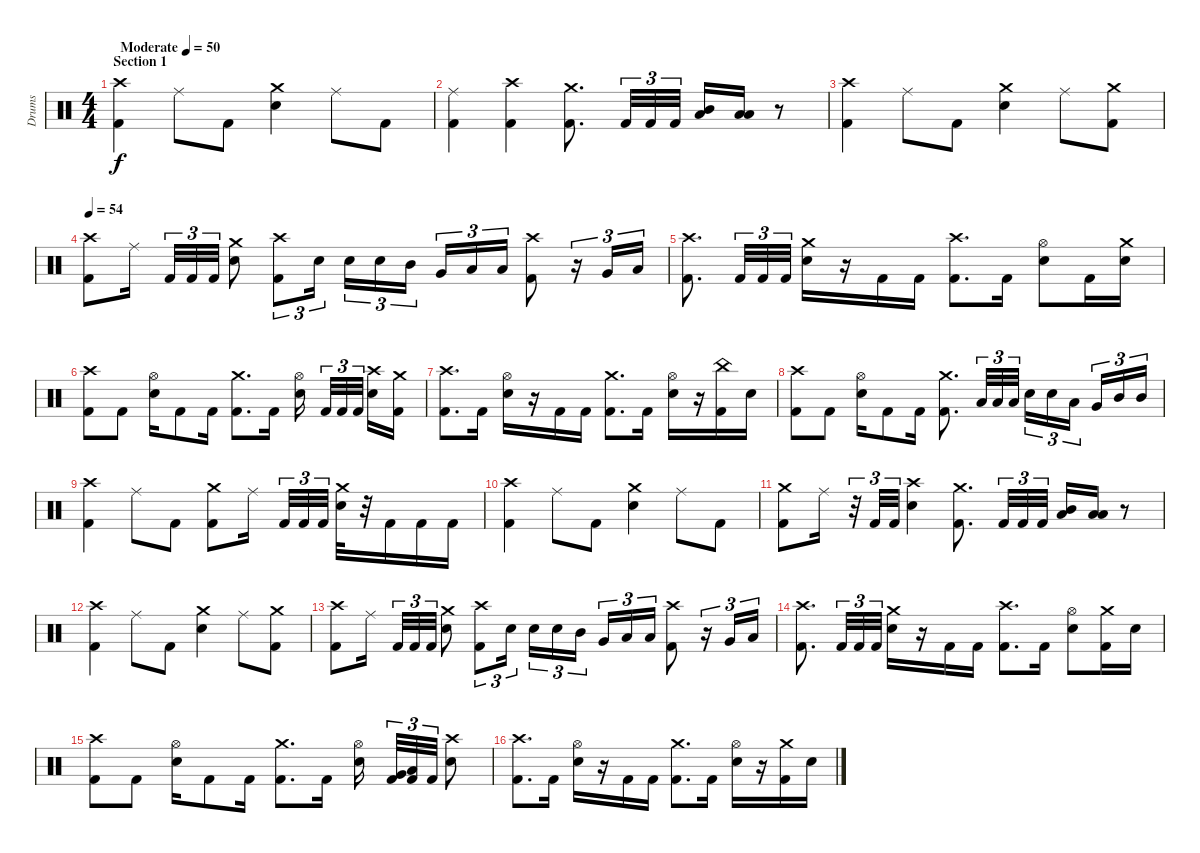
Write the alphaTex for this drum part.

\track ("Drums" "Drums") {instrument percussion}
\staff {score}
\articulation defaults
\ts (4 4)
\section ("" "Section 1")
\tempo (50 "Moderate")
\clef neutral
\ks c
("Crash high (hit)" "Kick (hit) 2").4{dy f} "Ride (middle)".8 "Kick (hit) 2".8 ("Crash medium (hit)" "Electric Snare (hit)").4 "Ride (middle)".8 "Kick (hit) 2".8 |
("Ride (middle)" "Kick (hit) 2").4 ("Crash high (hit)" "Kick (hit) 2").4 ("Crash medium (hit)" "Kick (hit) 2").8{d} "Kick (hit) 2".32{tu (3 2)} "Kick (hit) 2".32{tu (3 2)} "Kick (hit) 2".32{tu (3 2)} ("Mid Tom (hit)" "Low Floor Tom (hit)").16 ("Low Tom (hit)" "Low Floor Tom (hit)").16 r.8 |
("Crash high (hit)" "Kick (hit) 2").4 "Ride (middle)".8 "Kick (hit) 2".8 ("Crash medium (hit)" "Electric Snare (hit)").4 "Ride (middle)".8 ("Crash medium (hit)" "Kick (hit) 2").8 |
\tempo 54
("Crash high (hit)" "Kick (hit) 2").8 "Ride (middle)".16{beam splitsecondary} "Kick (hit) 2".32{tu (3 2)} "Kick (hit) 2".32{tu (3 2)} "Kick (hit) 2".32{tu (3 2)} ("Crash medium (hit)" "Electric Snare (hit)").8 ("Crash high (hit)" "Kick (hit) 2").8{tu (3 2)} "Electric Snare (hit)".16{tu (3 2)} "Electric Snare (hit)".16{tu (3 2)} "Electric Snare (hit)".16{tu (3 2)} "Mid Tom (hit)".16{tu (3 2) beam splitsecondary} "Very Low Tom (hit)".16{tu (3 2)} "Low Tom (hit)".16{tu (3 2)} "Low Tom (hit)".16{tu (3 2)} ("Crash high (hit)" "Kick (hit) 2").8 r.16{tu (3 2)} "Very Low Tom (hit)".16{tu (3 2)} "Low Floor Tom (hit)".16{tu (3 2)} |
("Crash high (hit)" "Kick (hit) 2").8{d} "Kick (hit) 2".32{tu (3 2)} "Kick (hit) 2".32{tu (3 2)} "Kick (hit) 2".32{tu (3 2)} ("Crash medium (hit)" "Electric Snare (hit)").16 r.16 "Kick (hit) 2".16 "Kick (hit) 2".16 ("Crash high (hit)" "Kick (hit) 2").8{d} "Kick (hit) 2".16 ("Hi-Hat (open)" "Electric Snare (hit)").8 "Kick (hit) 2".16 ("Crash medium (hit)" "Electric Snare (hit)").16 |
("Crash high (hit)" "Kick (hit) 2").8 "Kick (hit) 2".8 ("Hi-Hat (open)" "Electric Snare (hit)").16 "Kick (hit) 2".8 "Kick (hit) 2".16 ("Crash medium (hit)" "Kick (hit) 2").8{d} "Kick (hit) 2".16 ("Hi-Hat (open)" "Electric Snare (hit)").16{beam splitsecondary} "Kick (hit) 2".32{tu (3 2)} "Kick (hit) 2".32{tu (3 2)} "Kick (hit) 2".32{tu (3 2) beam splitsecondary} ("Crash high (hit)" "Electric Snare (hit)").16 ("Crash medium (hit)" "Kick (hit) 2").16 |
("Crash high (hit)" "Kick (hit) 2").8{d} "Kick (hit) 2".16 ("Hi-Hat (open)" "Electric Snare (hit)").16 r.16 "Kick (hit) 2".16 "Kick (hit) 2".16 ("Crash medium (hit)" "Kick (hit) 2").8{d} "Kick (hit) 2".16 ("Hi-Hat (open)" "Electric Snare (hit)").16 r.16 ("China (hit)" "Kick (hit) 2").16 "Electric Snare (hit)".16 |
("Crash high (hit)" "Kick (hit) 2").8 "Kick (hit) 2".8 ("Hi-Hat (open)" "Electric Snare (hit)").16 "Kick (hit) 2".8 "Kick (hit) 2".16 ("Crash medium (hit)" "Kick (hit) 2").8{d} "Low Tom (hit)".32{tu (3 2)} "Low Tom (hit)".32{tu (3 2)} "Low Tom (hit)".32{tu (3 2)} "Electric Snare (hit)".16{tu (3 2)} "Electric Snare (hit)".16{tu (3 2)} "Low Tom (hit)".16{tu (3 2) beam splitsecondary} "Very Low Tom (hit)".16{tu (3 2)} "Mid Tom (hit)".16{tu (3 2)} "Mid Tom (hit)".16{tu (3 2)} |
("Crash high (hit)" "Kick (hit) 2").4 "Ride (middle)".8 "Kick (hit) 2".8 ("Crash medium (hit)" "Kick (hit) 2").8 "Ride (middle)".16{beam splitsecondary} "Kick (hit) 2".32{tu (3 2)} "Kick (hit) 2".32{tu (3 2)} "Kick (hit) 2".32{tu (3 2)} ("Crash medium (hit)" "Electric Snare (hit)").32 r.32 "Kick (hit) 2".16 "Kick (hit) 2".16 "Kick (hit) 2".16 |
("Crash high (hit)" "Kick (hit) 2").4 "Ride (middle)".8 "Kick (hit) 2".8 ("Crash medium (hit)" "Electric Snare (hit)").4 "Ride (middle)".8 "Kick (hit) 2".8 |
("Crash medium (hit)" "Kick (hit) 2").8 "Ride (middle)".16 r.32{tu (3 2)} "Kick (hit) 2".32{tu (3 2)} "Kick (hit) 2".32{tu (3 2)} ("Crash high (hit)" "Electric Snare (hit)").4 ("Crash medium (hit)" "Kick (hit) 2").8{d} "Kick (hit) 2".32{tu (3 2)} "Kick (hit) 2".32{tu (3 2)} "Kick (hit) 2".32{tu (3 2)} ("Mid Tom (hit)" "Low Floor Tom (hit)").16 ("Low Tom (hit)" "Low Floor Tom (hit)").16 r.8 |
("Crash high (hit)" "Kick (hit) 2").4 "Ride (middle)".8 "Kick (hit) 2".8 ("Crash medium (hit)" "Electric Snare (hit)").4 "Ride (middle)".8 ("Crash medium (hit)" "Kick (hit) 2").8 |
("Crash high (hit)" "Kick (hit) 2").8 "Ride (middle)".16{beam splitsecondary} "Kick (hit) 2".32{tu (3 2)} "Kick (hit) 2".32{tu (3 2)} "Kick (hit) 2".32{tu (3 2)} ("Crash medium (hit)" "Electric Snare (hit)").8 ("Crash high (hit)" "Kick (hit) 2").8{tu (3 2)} "Electric Snare (hit)".16{tu (3 2)} "Electric Snare (hit)".16{tu (3 2)} "Electric Snare (hit)".16{tu (3 2)} "Mid Tom (hit)".16{tu (3 2) beam splitsecondary} "Very Low Tom (hit)".16{tu (3 2)} "Low Tom (hit)".16{tu (3 2)} "Low Tom (hit)".16{tu (3 2)} ("Crash high (hit)" "Kick (hit) 2").8 r.16{tu (3 2)} "Very Low Tom (hit)".16{tu (3 2)} "Low Floor Tom (hit)".16{tu (3 2)} |
("Crash high (hit)" "Kick (hit) 2").8{d} "Kick (hit) 2".32{tu (3 2)} "Kick (hit) 2".32{tu (3 2)} "Kick (hit) 2".32{tu (3 2)} ("Crash medium (hit)" "Electric Snare (hit)").16 r.16 "Kick (hit) 2".16 "Kick (hit) 2".16 ("Crash high (hit)" "Kick (hit) 2").8{d} "Kick (hit) 2".16 ("Hi-Hat (open)" "Electric Snare (hit)").8 ("Crash medium (hit)" "Kick (hit) 2").16 "Electric Snare (hit)".16 |
("Crash high (hit)" "Kick (hit) 2").8 "Kick (hit) 2".8 ("Hi-Hat (open)" "Electric Snare (hit)").16 "Kick (hit) 2".8 "Kick (hit) 2".16 ("Crash medium (hit)" "Kick (hit) 2").8{d} "Kick (hit) 2".16 ("Hi-Hat (open)" "Electric Snare (hit)").16{beam splitsecondary} ("Very Low Tom (hit)" "Kick (hit) 2").32{tu (3 2)} ("Low Floor Tom (hit)" "Kick (hit) 2").32{tu (3 2)} "Kick (hit) 2".32{tu (3 2)} ("Crash high (hit)" "Electric Snare (hit)").8 |
("Crash high (hit)" "Kick (hit) 2").8{d} "Kick (hit) 2".16 ("Hi-Hat (open)" "Electric Snare (hit)").16 r.16 "Kick (hit) 2".16 "Kick (hit) 2".16 ("Crash medium (hit)" "Kick (hit) 2").8{d} "Kick (hit) 2".16 ("Hi-Hat (open)" "Electric Snare (hit)").16 r.16 ("Crash medium (hit)" "Kick (hit) 2").16 "Electric Snare (hit)".16
